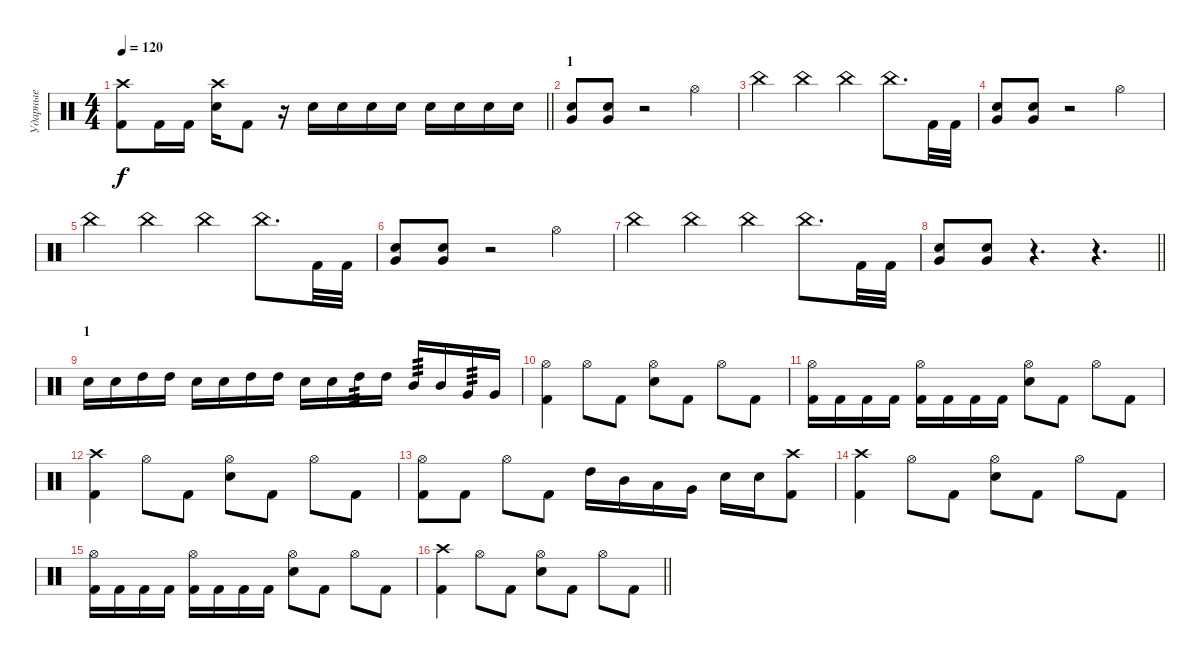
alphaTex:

\track ("Ударные" "Ударные") {instrument percussion}
\staff {score}
\articulation defaults
\ts (4 4)
\tempo 120
\clef neutral
\barLineRight lightlight
\ks c
("Crash high (hit)" "Kick (hit) 2").8{dy f} "Kick (hit) 2".16 "Kick (hit) 2".16 ("Crash high (hit)" "Electric Snare (hit)").16 "Kick (hit) 2".8 r.16 "Electric Snare (hit)".16 "Electric Snare (hit)".16 "Electric Snare (hit)".16 "Electric Snare (hit)".16 "Electric Snare (hit)".16 "Electric Snare (hit)".16 "Electric Snare (hit)".16 "Electric Snare (hit)".16 |
\section ("" "1")
("Very Low Tom (hit)" "Electric Snare (hit)").8 ("Very Low Tom (hit)" "Electric Snare (hit)").8 r.2 "Hi-Hat (open)".4 |
"China (hit)".4 "China (hit)".4 "China (hit)".4 "China (hit)".8{d} "Kick (hit) 2".32 "Kick (hit) 2".32 |
("Very Low Tom (hit)" "Electric Snare (hit)").8 ("Very Low Tom (hit)" "Electric Snare (hit)").8 r.2 "Hi-Hat (open)".4 |
"China (hit)".4 "China (hit)".4 "China (hit)".4 "China (hit)".8{d} "Kick (hit) 2".32 "Kick (hit) 2".32 |
("Very Low Tom (hit)" "Electric Snare (hit)").8 ("Very Low Tom (hit)" "Electric Snare (hit)").8 r.2 "Hi-Hat (open)".4 |
"China (hit)".4 "China (hit)".4 "China (hit)".4 "China (hit)".8{d} "Kick (hit) 2".32 "Kick (hit) 2".32 |
\barLineRight lightlight
("Very Low Tom (hit)" "Electric Snare (hit)").8 ("Very Low Tom (hit)" "Electric Snare (hit)").8 r.4{d} r.4{d} |
\section ("" "1")
"Electric Snare (hit)".16 "Electric Snare (hit)".16 "High Tom (hit)".16 "High Tom (hit)".16 "Electric Snare (hit)".16 "Electric Snare (hit)".16 "High Tom (hit)".16 "High Tom (hit)".16 "Electric Snare (hit)".16 "Electric Snare (hit)".16 "High Tom (hit)".16{tp 3} "High Tom (hit)".16 "Mid Tom (hit)".16{tp 3} "Mid Tom (hit)".16 "Very Low Tom (hit)".16{tp 3} "Very Low Tom (hit)".16 |
("Hi-Hat (open)" "Kick (hit) 2").4 "Hi-Hat (open)".8 "Kick (hit) 2".8 ("Hi-Hat (open)" "Electric Snare (hit)").8 "Kick (hit) 2".8 "Hi-Hat (open)".8 "Kick (hit) 2".8 |
("Hi-Hat (open)" "Kick (hit) 2").16 "Kick (hit) 2".16 "Kick (hit) 2".16 "Kick (hit) 2".16 ("Hi-Hat (open)" "Kick (hit) 2").16 "Kick (hit) 2".16 "Kick (hit) 2".16 "Kick (hit) 2".16 ("Hi-Hat (open)" "Electric Snare (hit)").8 "Kick (hit) 2".8 "Hi-Hat (open)".8 "Kick (hit) 2".8 |
("Crash high (hit)" "Kick (hit) 2").4 "Hi-Hat (open)".8 "Kick (hit) 2".8 ("Hi-Hat (open)" "Electric Snare (hit)").8 "Kick (hit) 2".8 "Hi-Hat (open)".8 "Kick (hit) 2".8 |
("Hi-Hat (open)" "Kick (hit) 2").8 "Kick (hit) 2".8 "Hi-Hat (open)".8 "Kick (hit) 2".8 "High Tom (hit)".16 "Mid Tom (hit)".16 "Low Tom (hit)".16 "Very Low Tom (hit)".16 "Electric Snare (hit)".16 "Electric Snare (hit)".16 ("Crash high (hit)" "Kick (hit) 2").8 |
("Crash high (hit)" "Kick (hit) 2").4 "Hi-Hat (open)".8 "Kick (hit) 2".8 ("Hi-Hat (open)" "Electric Snare (hit)").8 "Kick (hit) 2".8 "Hi-Hat (open)".8 "Kick (hit) 2".8 |
("Hi-Hat (open)" "Kick (hit) 2").16 "Kick (hit) 2".16 "Kick (hit) 2".16 "Kick (hit) 2".16 ("Hi-Hat (open)" "Kick (hit) 2").16 "Kick (hit) 2".16 "Kick (hit) 2".16 "Kick (hit) 2".16 ("Hi-Hat (open)" "Electric Snare (hit)").8 "Kick (hit) 2".8 "Hi-Hat (open)".8 "Kick (hit) 2".8 |
\barLineRight lightlight
("Crash high (hit)" "Kick (hit) 2").4 "Hi-Hat (open)".8 "Kick (hit) 2".8 ("Hi-Hat (open)" "Electric Snare (hit)").8 "Kick (hit) 2".8 "Hi-Hat (open)".8 "Kick (hit) 2".8
